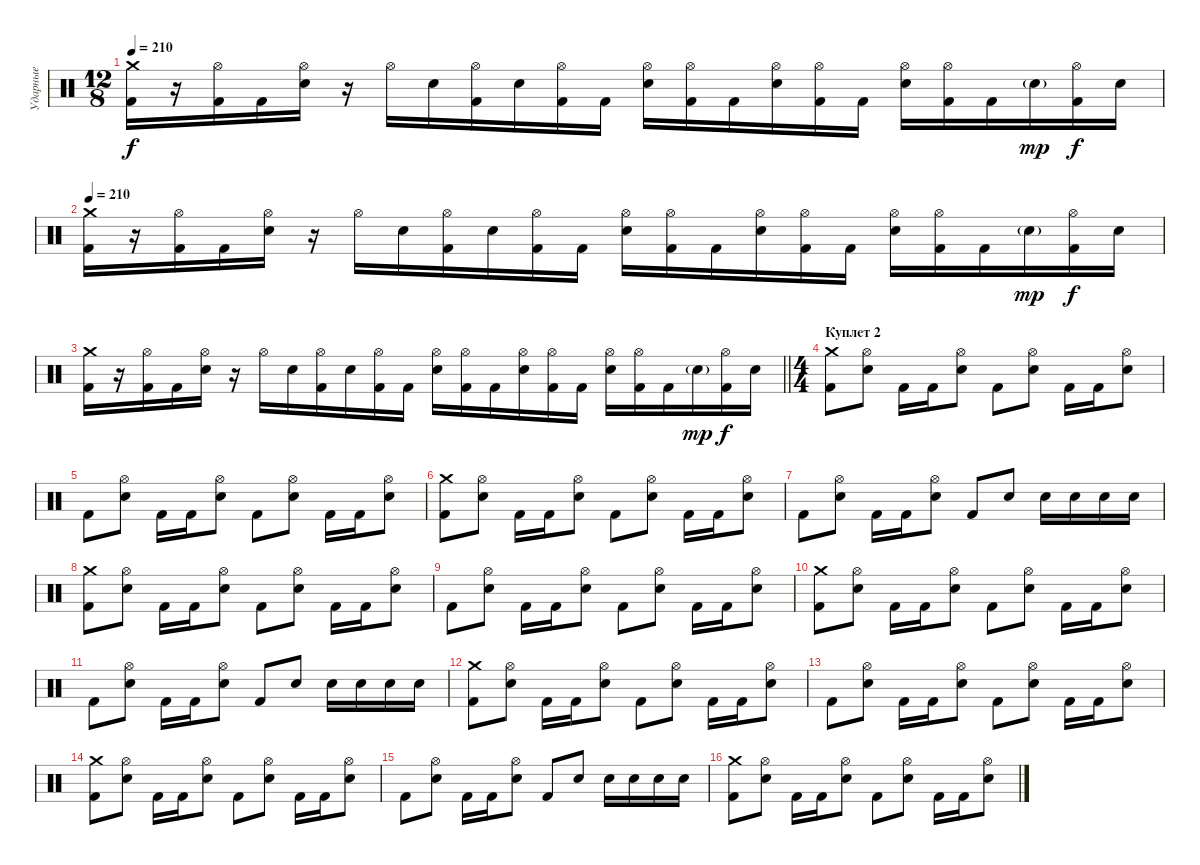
\track ("Ударные" "Ударные") {instrument percussion}
\staff {score}
\articulation defaults
\ts (12 8)
\tempo 210
\clef neutral
\ks c
("Kick (hit) 2" "Crash medium (hit)").16{dy f} r.16 ("Kick (hit) 2" "Hi-Hat (open)").16 "Kick (hit) 2".16 ("Electric Snare (hit)" "Hi-Hat (open)").16 r.16 "Hi-Hat (open)".16 "Electric Snare (hit)".16 ("Kick (hit) 2" "Hi-Hat (open)").16 "Electric Snare (hit)".16 ("Kick (hit) 2" "Hi-Hat (open)").16 "Kick (hit) 2".16 ("Electric Snare (hit)" "Hi-Hat (open)").16 ("Kick (hit) 2" "Hi-Hat (open)").16 "Kick (hit) 2".16 ("Electric Snare (hit)" "Hi-Hat (open)").16 ("Kick (hit) 2" "Hi-Hat (open)").16 "Kick (hit) 2".16 ("Electric Snare (hit)" "Hi-Hat (open)").16 ("Kick (hit) 2" "Hi-Hat (open)").16 "Kick (hit) 2".16 "Electric Snare (hit)"{g}.16{dy mp} ("Kick (hit) 2" "Hi-Hat (open)").16{dy f} "Electric Snare (hit)".16 |
\tempo 210
("Kick (hit) 2" "Crash medium (hit)").16 r.16 ("Kick (hit) 2" "Hi-Hat (open)").16 "Kick (hit) 2".16 ("Electric Snare (hit)" "Hi-Hat (open)").16 r.16 "Hi-Hat (open)".16 "Electric Snare (hit)".16 ("Kick (hit) 2" "Hi-Hat (open)").16 "Electric Snare (hit)".16 ("Kick (hit) 2" "Hi-Hat (open)").16 "Kick (hit) 2".16 ("Electric Snare (hit)" "Hi-Hat (open)").16 ("Kick (hit) 2" "Hi-Hat (open)").16 "Kick (hit) 2".16 ("Electric Snare (hit)" "Hi-Hat (open)").16 ("Kick (hit) 2" "Hi-Hat (open)").16 "Kick (hit) 2".16 ("Electric Snare (hit)" "Hi-Hat (open)").16 ("Kick (hit) 2" "Hi-Hat (open)").16 "Kick (hit) 2".16 "Electric Snare (hit)"{g}.16{dy mp} ("Kick (hit) 2" "Hi-Hat (open)").16{dy f} "Electric Snare (hit)".16 |
\barLineRight lightlight
("Kick (hit) 2" "Crash medium (hit)").16 r.16 ("Kick (hit) 2" "Hi-Hat (open)").16 "Kick (hit) 2".16 ("Electric Snare (hit)" "Hi-Hat (open)").16 r.16 "Hi-Hat (open)".16 "Electric Snare (hit)".16 ("Kick (hit) 2" "Hi-Hat (open)").16 "Electric Snare (hit)".16 ("Kick (hit) 2" "Hi-Hat (open)").16 "Kick (hit) 2".16 ("Electric Snare (hit)" "Hi-Hat (open)").16 ("Kick (hit) 2" "Hi-Hat (open)").16 "Kick (hit) 2".16 ("Electric Snare (hit)" "Hi-Hat (open)").16 ("Kick (hit) 2" "Hi-Hat (open)").16 "Kick (hit) 2".16 ("Electric Snare (hit)" "Hi-Hat (open)").16 ("Kick (hit) 2" "Hi-Hat (open)").16 "Kick (hit) 2".16 "Electric Snare (hit)"{g}.16{dy mp} ("Kick (hit) 2" "Hi-Hat (open)").16{dy f} "Electric Snare (hit)".16 |
\ts (4 4)
\section ("" "Куплет 2")
("Kick (hit) 2" "Crash medium (hit)").8 ("Electric Snare (hit)" "Hi-Hat (open)").8 "Kick (hit) 2".16 "Kick (hit) 2".16 ("Electric Snare (hit)" "Hi-Hat (open)").8 "Kick (hit) 2".8 ("Electric Snare (hit)" "Hi-Hat (open)").8 "Kick (hit) 2".16 "Kick (hit) 2".16 ("Electric Snare (hit)" "Hi-Hat (open)").8 |
"Kick (hit) 2".8 ("Electric Snare (hit)" "Hi-Hat (open)").8 "Kick (hit) 2".16 "Kick (hit) 2".16 ("Electric Snare (hit)" "Hi-Hat (open)").8 "Kick (hit) 2".8 ("Electric Snare (hit)" "Hi-Hat (open)").8 "Kick (hit) 2".16 "Kick (hit) 2".16 ("Electric Snare (hit)" "Hi-Hat (open)").8 |
("Kick (hit) 2" "Crash medium (hit)").8 ("Electric Snare (hit)" "Hi-Hat (open)").8 "Kick (hit) 2".16 "Kick (hit) 2".16 ("Electric Snare (hit)" "Hi-Hat (open)").8 "Kick (hit) 2".8 ("Electric Snare (hit)" "Hi-Hat (open)").8 "Kick (hit) 2".16 "Kick (hit) 2".16 ("Electric Snare (hit)" "Hi-Hat (open)").8 |
"Kick (hit) 2".8 ("Electric Snare (hit)" "Hi-Hat (open)").8 "Kick (hit) 2".16 "Kick (hit) 2".16 ("Electric Snare (hit)" "Hi-Hat (open)").8 "Kick (hit) 2".8 "Electric Snare (hit)".8 "Electric Snare (hit)".16 "Electric Snare (hit)".16 "Electric Snare (hit)".16 "Electric Snare (hit)".16 |
("Kick (hit) 2" "Crash medium (hit)").8 ("Electric Snare (hit)" "Hi-Hat (open)").8 "Kick (hit) 2".16 "Kick (hit) 2".16 ("Electric Snare (hit)" "Hi-Hat (open)").8 "Kick (hit) 2".8 ("Electric Snare (hit)" "Hi-Hat (open)").8 "Kick (hit) 2".16 "Kick (hit) 2".16 ("Electric Snare (hit)" "Hi-Hat (open)").8 |
"Kick (hit) 2".8 ("Electric Snare (hit)" "Hi-Hat (open)").8 "Kick (hit) 2".16 "Kick (hit) 2".16 ("Electric Snare (hit)" "Hi-Hat (open)").8 "Kick (hit) 2".8 ("Electric Snare (hit)" "Hi-Hat (open)").8 "Kick (hit) 2".16 "Kick (hit) 2".16 ("Electric Snare (hit)" "Hi-Hat (open)").8 |
("Kick (hit) 2" "Crash medium (hit)").8 ("Electric Snare (hit)" "Hi-Hat (open)").8 "Kick (hit) 2".16 "Kick (hit) 2".16 ("Electric Snare (hit)" "Hi-Hat (open)").8 "Kick (hit) 2".8 ("Electric Snare (hit)" "Hi-Hat (open)").8 "Kick (hit) 2".16 "Kick (hit) 2".16 ("Electric Snare (hit)" "Hi-Hat (open)").8 |
"Kick (hit) 2".8 ("Electric Snare (hit)" "Hi-Hat (open)").8 "Kick (hit) 2".16 "Kick (hit) 2".16 ("Electric Snare (hit)" "Hi-Hat (open)").8 "Kick (hit) 2".8 "Electric Snare (hit)".8 "Electric Snare (hit)".16 "Electric Snare (hit)".16 "Electric Snare (hit)".16 "Electric Snare (hit)".16 |
("Kick (hit) 2" "Crash medium (hit)").8 ("Electric Snare (hit)" "Hi-Hat (open)").8 "Kick (hit) 2".16 "Kick (hit) 2".16 ("Electric Snare (hit)" "Hi-Hat (open)").8 "Kick (hit) 2".8 ("Electric Snare (hit)" "Hi-Hat (open)").8 "Kick (hit) 2".16 "Kick (hit) 2".16 ("Electric Snare (hit)" "Hi-Hat (open)").8 |
"Kick (hit) 2".8 ("Electric Snare (hit)" "Hi-Hat (open)").8 "Kick (hit) 2".16 "Kick (hit) 2".16 ("Electric Snare (hit)" "Hi-Hat (open)").8 "Kick (hit) 2".8 ("Electric Snare (hit)" "Hi-Hat (open)").8 "Kick (hit) 2".16 "Kick (hit) 2".16 ("Electric Snare (hit)" "Hi-Hat (open)").8 |
("Kick (hit) 2" "Crash medium (hit)").8 ("Electric Snare (hit)" "Hi-Hat (open)").8 "Kick (hit) 2".16 "Kick (hit) 2".16 ("Electric Snare (hit)" "Hi-Hat (open)").8 "Kick (hit) 2".8 ("Electric Snare (hit)" "Hi-Hat (open)").8 "Kick (hit) 2".16 "Kick (hit) 2".16 ("Electric Snare (hit)" "Hi-Hat (open)").8 |
"Kick (hit) 2".8 ("Electric Snare (hit)" "Hi-Hat (open)").8 "Kick (hit) 2".16 "Kick (hit) 2".16 ("Electric Snare (hit)" "Hi-Hat (open)").8 "Kick (hit) 2".8 "Electric Snare (hit)".8 "Electric Snare (hit)".16 "Electric Snare (hit)".16 "Electric Snare (hit)".16 "Electric Snare (hit)".16 |
("Kick (hit) 2" "Crash medium (hit)").8 ("Electric Snare (hit)" "Hi-Hat (open)").8 "Kick (hit) 2".16 "Kick (hit) 2".16 ("Electric Snare (hit)" "Hi-Hat (open)").8 "Kick (hit) 2".8 ("Electric Snare (hit)" "Hi-Hat (open)").8 "Kick (hit) 2".16 "Kick (hit) 2".16 ("Electric Snare (hit)" "Hi-Hat (open)").8
